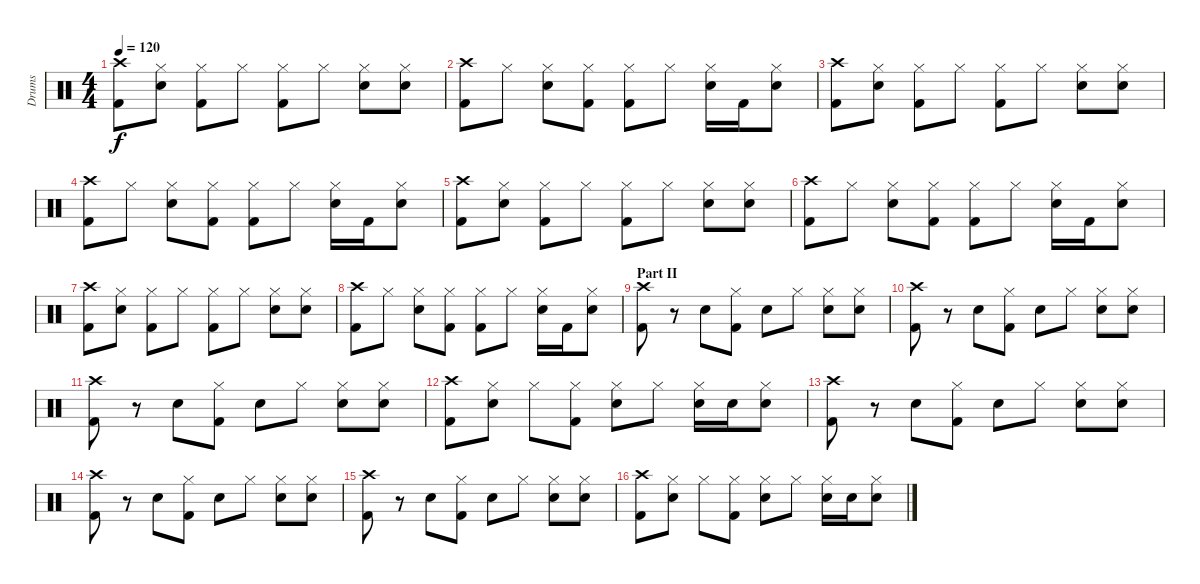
\track ("Drums" "Drums") {instrument percussion}
\staff {score}
\articulation defaults
\ts (4 4)
\tempo 120
\clef neutral
\ks c
("Crash high (hit)" "Kick (hit) 2").8{dy f} ("Hi-Hat (closed)" "Snare (hit) 2").8 ("Hi-Hat (closed)" "Kick (hit) 2").8 "Hi-Hat (closed)".8 ("Hi-Hat (closed)" "Kick (hit) 2").8 "Hi-Hat (closed)".8 ("Hi-Hat (closed)" "Snare (hit) 2").8 ("Hi-Hat (closed)" "Snare (hit) 2").8 |
("Crash high (hit)" "Kick (hit) 2").8 "Hi-Hat (closed)".8 ("Hi-Hat (closed)" "Snare (hit) 2").8 ("Hi-Hat (closed)" "Kick (hit) 2").8 ("Hi-Hat (closed)" "Kick (hit) 2").8 "Hi-Hat (closed)".8 ("Hi-Hat (closed)" "Snare (hit) 2").16 "Kick (hit) 2".16 ("Hi-Hat (closed)" "Snare (hit) 2").8 |
("Crash high (hit)" "Kick (hit) 2").8 ("Hi-Hat (closed)" "Snare (hit) 2").8 ("Hi-Hat (closed)" "Kick (hit) 2").8 "Hi-Hat (closed)".8 ("Hi-Hat (closed)" "Kick (hit) 2").8 "Hi-Hat (closed)".8 ("Hi-Hat (closed)" "Snare (hit) 2").8 ("Hi-Hat (closed)" "Snare (hit) 2").8 |
("Crash high (hit)" "Kick (hit) 2").8 "Hi-Hat (closed)".8 ("Hi-Hat (closed)" "Snare (hit) 2").8 ("Hi-Hat (closed)" "Kick (hit) 2").8 ("Hi-Hat (closed)" "Kick (hit) 2").8 "Hi-Hat (closed)".8 ("Hi-Hat (closed)" "Snare (hit) 2").16 "Kick (hit) 2".16 ("Hi-Hat (closed)" "Snare (hit) 2").8 |
("Crash high (hit)" "Kick (hit) 2").8 ("Hi-Hat (closed)" "Snare (hit) 2").8 ("Hi-Hat (closed)" "Kick (hit) 2").8 "Hi-Hat (closed)".8 ("Hi-Hat (closed)" "Kick (hit) 2").8 "Hi-Hat (closed)".8 ("Hi-Hat (closed)" "Snare (hit) 2").8 ("Hi-Hat (closed)" "Snare (hit) 2").8 |
("Crash high (hit)" "Kick (hit) 2").8 "Hi-Hat (closed)".8 ("Hi-Hat (closed)" "Snare (hit) 2").8 ("Hi-Hat (closed)" "Kick (hit) 2").8 ("Hi-Hat (closed)" "Kick (hit) 2").8 "Hi-Hat (closed)".8 ("Hi-Hat (closed)" "Snare (hit) 2").16 "Kick (hit) 2".16 ("Hi-Hat (closed)" "Snare (hit) 2").8 |
("Crash high (hit)" "Kick (hit) 2").8 ("Hi-Hat (closed)" "Snare (hit) 2").8 ("Hi-Hat (closed)" "Kick (hit) 2").8 "Hi-Hat (closed)".8 ("Hi-Hat (closed)" "Kick (hit) 2").8 "Hi-Hat (closed)".8 ("Hi-Hat (closed)" "Snare (hit) 2").8 ("Hi-Hat (closed)" "Snare (hit) 2").8 |
("Crash high (hit)" "Kick (hit) 2").8 "Hi-Hat (closed)".8 ("Hi-Hat (closed)" "Snare (hit) 2").8 ("Hi-Hat (closed)" "Kick (hit) 2").8 ("Hi-Hat (closed)" "Kick (hit) 2").8 "Hi-Hat (closed)".8 ("Hi-Hat (closed)" "Snare (hit) 2").16 "Kick (hit) 2".16 ("Hi-Hat (closed)" "Snare (hit) 2").8 |
\section ("" "Part II")
("Crash high (hit)" "Kick (hit) 2").8 r.8 "Electric Snare (hit)".8 ("Hi-Hat (closed)" "Kick (hit) 2").8 "Snare (hit) 2".8 "Hi-Hat (closed)".8 ("Hi-Hat (closed)" "Electric Snare (hit)").8 ("Hi-Hat (closed)" "Snare (hit) 2").8 |
("Crash high (hit)" "Kick (hit) 2").8 r.8 "Electric Snare (hit)".8 ("Hi-Hat (closed)" "Kick (hit) 2").8 "Snare (hit) 2".8 "Hi-Hat (closed)".8 ("Hi-Hat (closed)" "Electric Snare (hit)").8 ("Hi-Hat (closed)" "Snare (hit) 2").8 |
("Crash high (hit)" "Kick (hit) 2").8 r.8 "Electric Snare (hit)".8 ("Hi-Hat (closed)" "Kick (hit) 2").8 "Snare (hit) 2".8 "Hi-Hat (closed)".8 ("Hi-Hat (closed)" "Electric Snare (hit)").8 ("Hi-Hat (closed)" "Snare (hit) 2").8 |
("Crash high (hit)" "Kick (hit) 2").8 ("Hi-Hat (closed)" "Snare (hit) 2").8 "Hi-Hat (closed)".8 ("Hi-Hat (closed)" "Kick (hit) 2").8 ("Hi-Hat (closed)" "Snare (hit) 2").8 "Hi-Hat (closed)".8 ("Hi-Hat (closed)" "Snare (hit) 2").16 "Snare (hit) 2".16 ("Hi-Hat (closed)" "Snare (hit) 2").8 |
("Crash high (hit)" "Kick (hit) 2").8 r.8 "Electric Snare (hit)".8 ("Hi-Hat (closed)" "Kick (hit) 2").8 "Snare (hit) 2".8 "Hi-Hat (closed)".8 ("Hi-Hat (closed)" "Electric Snare (hit)").8 ("Hi-Hat (closed)" "Snare (hit) 2").8 |
("Crash high (hit)" "Kick (hit) 2").8 r.8 "Electric Snare (hit)".8 ("Hi-Hat (closed)" "Kick (hit) 2").8 "Snare (hit) 2".8 "Hi-Hat (closed)".8 ("Hi-Hat (closed)" "Electric Snare (hit)").8 ("Hi-Hat (closed)" "Snare (hit) 2").8 |
("Crash high (hit)" "Kick (hit) 2").8 r.8 "Electric Snare (hit)".8 ("Hi-Hat (closed)" "Kick (hit) 2").8 "Snare (hit) 2".8 "Hi-Hat (closed)".8 ("Hi-Hat (closed)" "Electric Snare (hit)").8 ("Hi-Hat (closed)" "Snare (hit) 2").8 |
("Crash high (hit)" "Kick (hit) 2").8 ("Hi-Hat (closed)" "Snare (hit) 2").8 "Hi-Hat (closed)".8 ("Hi-Hat (closed)" "Kick (hit) 2").8 ("Hi-Hat (closed)" "Snare (hit) 2").8 "Hi-Hat (closed)".8 ("Hi-Hat (closed)" "Snare (hit) 2").16 "Snare (hit) 2".16 ("Hi-Hat (closed)" "Snare (hit) 2").8
